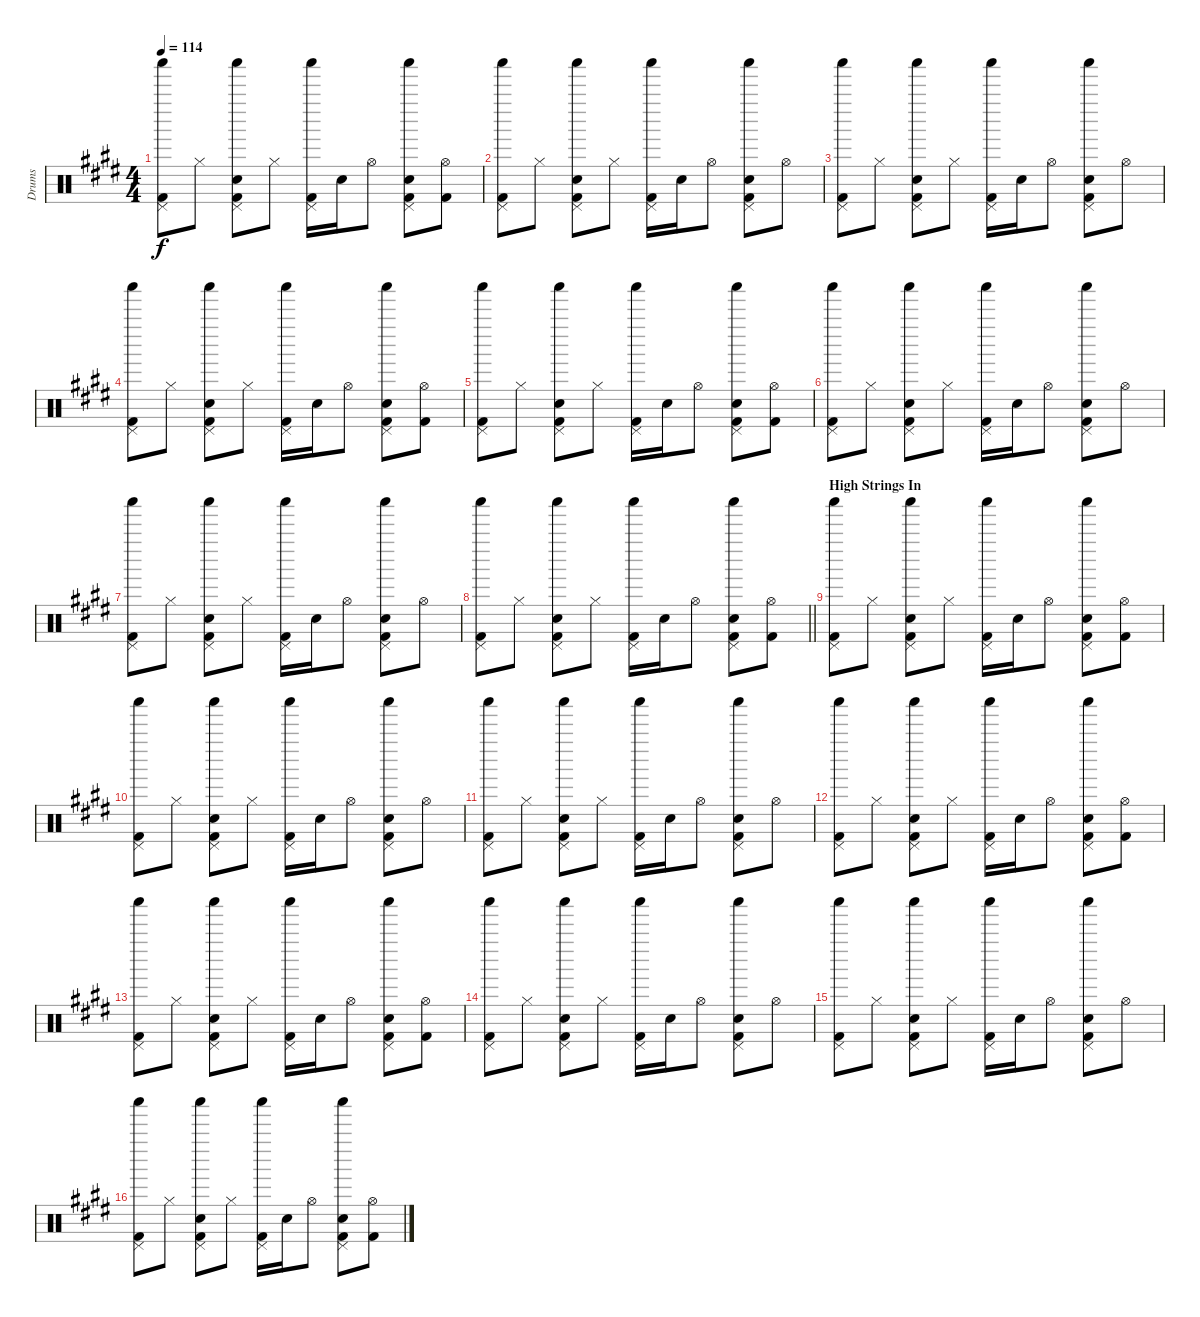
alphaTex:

\track ("Drums" "Drums") {instrument percussion}
\staff {score}
\articulation defaults
\ts (4 4)
\tempo 114
\clef neutral
\ks e
("Pedal Hi-Hat (hit)" "Shaker (hit)" "Kick (hit) 2").8{dy f} "Hi-Hat (closed)".8 ("Pedal Hi-Hat (hit)" "Shaker (hit)" "Electric Snare (hit)" "Kick (hit) 2").8 "Hi-Hat (closed)".8 ("Pedal Hi-Hat (hit)" "Shaker (hit)" "Kick (hit) 2").16 "Electric Snare (hit)".16 "Hi-Hat (open)".8 ("Pedal Hi-Hat (hit)" "Shaker (hit)" "Electric Snare (hit)" "Kick (hit) 2").8 ("Hi-Hat (open)" "Kick (hit) 2").8 |
("Pedal Hi-Hat (hit)" "Shaker (hit)" "Kick (hit) 2").8 "Hi-Hat (closed)".8 ("Pedal Hi-Hat (hit)" "Shaker (hit)" "Electric Snare (hit)" "Kick (hit) 2").8 "Hi-Hat (closed)".8 ("Pedal Hi-Hat (hit)" "Shaker (hit)" "Kick (hit) 2").16 "Electric Snare (hit)".16 "Hi-Hat (open)".8 ("Pedal Hi-Hat (hit)" "Shaker (hit)" "Electric Snare (hit)" "Kick (hit) 2").8 "Hi-Hat (open)".8 |
("Pedal Hi-Hat (hit)" "Shaker (hit)" "Kick (hit) 2").8 "Hi-Hat (closed)".8 ("Pedal Hi-Hat (hit)" "Shaker (hit)" "Electric Snare (hit)" "Kick (hit) 2").8 "Hi-Hat (closed)".8 ("Pedal Hi-Hat (hit)" "Shaker (hit)" "Kick (hit) 2").16 "Electric Snare (hit)".16 "Hi-Hat (open)".8 ("Pedal Hi-Hat (hit)" "Shaker (hit)" "Electric Snare (hit)" "Kick (hit) 2").8 "Hi-Hat (open)".8 |
("Pedal Hi-Hat (hit)" "Shaker (hit)" "Kick (hit) 2").8 "Hi-Hat (closed)".8 ("Pedal Hi-Hat (hit)" "Shaker (hit)" "Electric Snare (hit)" "Kick (hit) 2").8 "Hi-Hat (closed)".8 ("Pedal Hi-Hat (hit)" "Shaker (hit)" "Kick (hit) 2").16 "Electric Snare (hit)".16 "Hi-Hat (open)".8 ("Pedal Hi-Hat (hit)" "Shaker (hit)" "Electric Snare (hit)" "Kick (hit) 2").8 ("Hi-Hat (open)" "Kick (hit) 2").8 |
("Pedal Hi-Hat (hit)" "Shaker (hit)" "Kick (hit) 2").8 "Hi-Hat (closed)".8 ("Pedal Hi-Hat (hit)" "Shaker (hit)" "Electric Snare (hit)" "Kick (hit) 2").8 "Hi-Hat (closed)".8 ("Pedal Hi-Hat (hit)" "Shaker (hit)" "Kick (hit) 2").16 "Electric Snare (hit)".16 "Hi-Hat (open)".8 ("Pedal Hi-Hat (hit)" "Shaker (hit)" "Electric Snare (hit)" "Kick (hit) 2").8 ("Hi-Hat (open)" "Kick (hit) 2").8 |
("Pedal Hi-Hat (hit)" "Shaker (hit)" "Kick (hit) 2").8 "Hi-Hat (closed)".8 ("Pedal Hi-Hat (hit)" "Shaker (hit)" "Electric Snare (hit)" "Kick (hit) 2").8 "Hi-Hat (closed)".8 ("Pedal Hi-Hat (hit)" "Shaker (hit)" "Kick (hit) 2").16 "Electric Snare (hit)".16 "Hi-Hat (open)".8 ("Pedal Hi-Hat (hit)" "Shaker (hit)" "Electric Snare (hit)" "Kick (hit) 2").8 "Hi-Hat (open)".8 |
("Pedal Hi-Hat (hit)" "Shaker (hit)" "Kick (hit) 2").8 "Hi-Hat (closed)".8 ("Pedal Hi-Hat (hit)" "Shaker (hit)" "Electric Snare (hit)" "Kick (hit) 2").8 "Hi-Hat (closed)".8 ("Pedal Hi-Hat (hit)" "Shaker (hit)" "Kick (hit) 2").16 "Electric Snare (hit)".16 "Hi-Hat (open)".8 ("Pedal Hi-Hat (hit)" "Shaker (hit)" "Electric Snare (hit)" "Kick (hit) 2").8 "Hi-Hat (open)".8 |
\barLineRight lightlight
("Pedal Hi-Hat (hit)" "Shaker (hit)" "Kick (hit) 2").8 "Hi-Hat (closed)".8 ("Pedal Hi-Hat (hit)" "Shaker (hit)" "Electric Snare (hit)" "Kick (hit) 2").8 "Hi-Hat (closed)".8 ("Pedal Hi-Hat (hit)" "Shaker (hit)" "Kick (hit) 2").16 "Electric Snare (hit)".16 "Hi-Hat (open)".8 ("Pedal Hi-Hat (hit)" "Shaker (hit)" "Electric Snare (hit)" "Kick (hit) 2").8 ("Hi-Hat (open)" "Kick (hit) 2").8 |
\section ("" "High Strings In")
("Pedal Hi-Hat (hit)" "Shaker (hit)" "Kick (hit) 2").8 "Hi-Hat (closed)".8 ("Pedal Hi-Hat (hit)" "Shaker (hit)" "Electric Snare (hit)" "Kick (hit) 2").8 "Hi-Hat (closed)".8 ("Pedal Hi-Hat (hit)" "Shaker (hit)" "Kick (hit) 2").16 "Electric Snare (hit)".16 "Hi-Hat (open)".8 ("Pedal Hi-Hat (hit)" "Shaker (hit)" "Electric Snare (hit)" "Kick (hit) 2").8 ("Hi-Hat (open)" "Kick (hit) 2").8 |
("Pedal Hi-Hat (hit)" "Shaker (hit)" "Kick (hit) 2").8 "Hi-Hat (closed)".8 ("Pedal Hi-Hat (hit)" "Shaker (hit)" "Electric Snare (hit)" "Kick (hit) 2").8 "Hi-Hat (closed)".8 ("Pedal Hi-Hat (hit)" "Shaker (hit)" "Kick (hit) 2").16 "Electric Snare (hit)".16 "Hi-Hat (open)".8 ("Pedal Hi-Hat (hit)" "Shaker (hit)" "Electric Snare (hit)" "Kick (hit) 2").8 "Hi-Hat (open)".8 |
("Pedal Hi-Hat (hit)" "Shaker (hit)" "Kick (hit) 2").8 "Hi-Hat (closed)".8 ("Pedal Hi-Hat (hit)" "Shaker (hit)" "Electric Snare (hit)" "Kick (hit) 2").8 "Hi-Hat (closed)".8 ("Pedal Hi-Hat (hit)" "Shaker (hit)" "Kick (hit) 2").16 "Electric Snare (hit)".16 "Hi-Hat (open)".8 ("Pedal Hi-Hat (hit)" "Shaker (hit)" "Electric Snare (hit)" "Kick (hit) 2").8 "Hi-Hat (open)".8 |
("Pedal Hi-Hat (hit)" "Shaker (hit)" "Kick (hit) 2").8 "Hi-Hat (closed)".8 ("Pedal Hi-Hat (hit)" "Shaker (hit)" "Electric Snare (hit)" "Kick (hit) 2").8 "Hi-Hat (closed)".8 ("Pedal Hi-Hat (hit)" "Shaker (hit)" "Kick (hit) 2").16 "Electric Snare (hit)".16 "Hi-Hat (open)".8 ("Pedal Hi-Hat (hit)" "Shaker (hit)" "Electric Snare (hit)" "Kick (hit) 2").8 ("Hi-Hat (open)" "Kick (hit) 2").8 |
("Pedal Hi-Hat (hit)" "Shaker (hit)" "Kick (hit) 2").8 "Hi-Hat (closed)".8 ("Pedal Hi-Hat (hit)" "Shaker (hit)" "Electric Snare (hit)" "Kick (hit) 2").8 "Hi-Hat (closed)".8 ("Pedal Hi-Hat (hit)" "Shaker (hit)" "Kick (hit) 2").16 "Electric Snare (hit)".16 "Hi-Hat (open)".8 ("Pedal Hi-Hat (hit)" "Shaker (hit)" "Electric Snare (hit)" "Kick (hit) 2").8 ("Hi-Hat (open)" "Kick (hit) 2").8 |
("Pedal Hi-Hat (hit)" "Shaker (hit)" "Kick (hit) 2").8 "Hi-Hat (closed)".8 ("Pedal Hi-Hat (hit)" "Shaker (hit)" "Electric Snare (hit)" "Kick (hit) 2").8 "Hi-Hat (closed)".8 ("Pedal Hi-Hat (hit)" "Shaker (hit)" "Kick (hit) 2").16 "Electric Snare (hit)".16 "Hi-Hat (open)".8 ("Pedal Hi-Hat (hit)" "Shaker (hit)" "Electric Snare (hit)" "Kick (hit) 2").8 "Hi-Hat (open)".8 |
("Pedal Hi-Hat (hit)" "Shaker (hit)" "Kick (hit) 2").8 "Hi-Hat (closed)".8 ("Pedal Hi-Hat (hit)" "Shaker (hit)" "Electric Snare (hit)" "Kick (hit) 2").8 "Hi-Hat (closed)".8 ("Pedal Hi-Hat (hit)" "Shaker (hit)" "Kick (hit) 2").16 "Electric Snare (hit)".16 "Hi-Hat (open)".8 ("Pedal Hi-Hat (hit)" "Shaker (hit)" "Electric Snare (hit)" "Kick (hit) 2").8 "Hi-Hat (open)".8 |
("Pedal Hi-Hat (hit)" "Shaker (hit)" "Kick (hit) 2").8 "Hi-Hat (closed)".8 ("Pedal Hi-Hat (hit)" "Shaker (hit)" "Electric Snare (hit)" "Kick (hit) 2").8 "Hi-Hat (closed)".8 ("Pedal Hi-Hat (hit)" "Shaker (hit)" "Kick (hit) 2").16 "Electric Snare (hit)".16 "Hi-Hat (open)".8 ("Pedal Hi-Hat (hit)" "Shaker (hit)" "Electric Snare (hit)" "Kick (hit) 2").8 ("Hi-Hat (open)" "Kick (hit) 2").8
